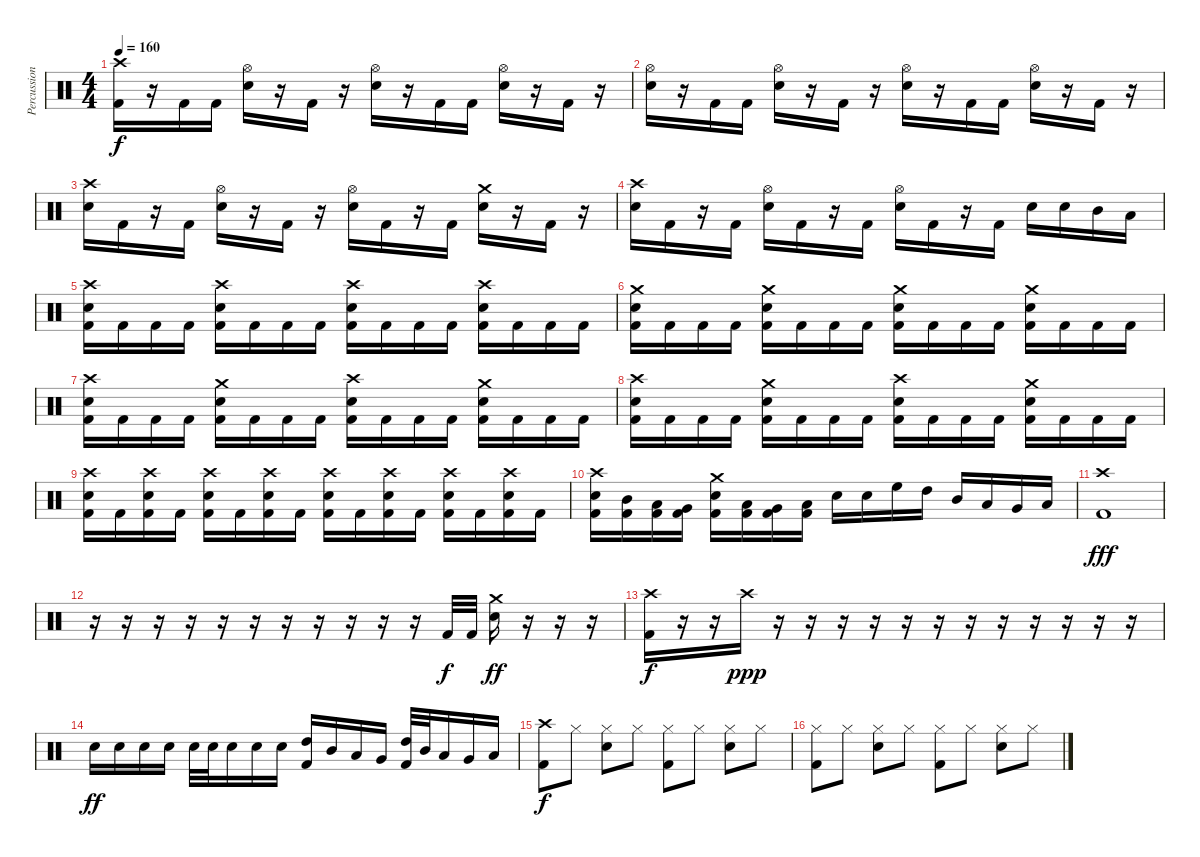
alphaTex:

\track ("Percussion" "Percussion") {instrument percussion}
\staff {score}
\articulation defaults
\ts (4 4)
\tempo 160
\clef neutral
\ks c
("Crash high (hit)" "Kick (hit) 2").16{dy f} r.16 "Kick (hit) 2".16 "Kick (hit) 2".16 ("Hi-Hat (open)" "Snare (hit) 2").16 r.16 "Kick (hit) 2".16 r.16 ("Hi-Hat (open)" "Snare (hit) 2").16 r.16 "Kick (hit) 2".16 "Kick (hit) 2".16 ("Hi-Hat (open)" "Snare (hit) 2").16 r.16 "Kick (hit) 2".16 r.16 |
("Hi-Hat (open)" "Snare (hit) 2").16 r.16 "Kick (hit) 2".16 "Kick (hit) 2".16 ("Hi-Hat (open)" "Snare (hit) 2").16 r.16 "Kick (hit) 2".16 r.16 ("Hi-Hat (open)" "Snare (hit) 2").16 r.16 "Kick (hit) 2".16 "Kick (hit) 2".16 ("Hi-Hat (open)" "Snare (hit) 2").16 r.16 "Kick (hit) 2".16 r.16 |
("Crash high (hit)" "Snare (hit) 2").16 "Kick (hit) 2".16 r.16 "Kick (hit) 2".16 ("Hi-Hat (open)" "Snare (hit) 2").16 r.16 "Kick (hit) 2".16 r.16 ("Hi-Hat (open)" "Snare (hit) 2").16 "Kick (hit) 2".16 r.16 "Kick (hit) 2".16 ("Crash medium (hit)" "Snare (hit) 2").16 r.16 "Kick (hit) 2".16 r.16 |
("Crash high (hit)" "Snare (hit) 2").16 "Kick (hit) 2".16 r.16 "Kick (hit) 2".16 ("Hi-Hat (open)" "Snare (hit) 2").16 "Kick (hit) 2".16 r.16 "Kick (hit) 2".16 ("Hi-Hat (open)" "Snare (hit) 2").16 "Kick (hit) 2".16 r.16 "Kick (hit) 2".16 "Snare (hit) 2".16 "Snare (hit) 2".16 "Mid Tom (hit)".16 "Low Tom (hit)".16 |
("Crash high (hit)" "Snare (hit) 2" "Kick (hit) 2").16 "Kick (hit) 2".16 "Kick (hit) 2".16 "Kick (hit) 2".16 ("Crash high (hit)" "Snare (hit) 2" "Kick (hit) 2").16 "Kick (hit) 2".16 "Kick (hit) 2".16 "Kick (hit) 2".16 ("Crash high (hit)" "Snare (hit) 2" "Kick (hit) 2").16 "Kick (hit) 2".16 "Kick (hit) 2".16 "Kick (hit) 2".16 ("Crash high (hit)" "Snare (hit) 2" "Kick (hit) 2").16 "Kick (hit) 2".16 "Kick (hit) 2".16 "Kick (hit) 2".16 |
("Crash medium (hit)" "Snare (hit) 2" "Kick (hit) 2").16 "Kick (hit) 2".16 "Kick (hit) 2".16 "Kick (hit) 2".16 ("Crash medium (hit)" "Snare (hit) 2" "Kick (hit) 2").16 "Kick (hit) 2".16 "Kick (hit) 2".16 "Kick (hit) 2".16 ("Crash medium (hit)" "Snare (hit) 2" "Kick (hit) 2").16 "Kick (hit) 2".16 "Kick (hit) 2".16 "Kick (hit) 2".16 ("Crash medium (hit)" "Snare (hit) 2" "Kick (hit) 2").16 "Kick (hit) 2".16 "Kick (hit) 2".16 "Kick (hit) 2".16 |
("Crash high (hit)" "Snare (hit) 2" "Kick (hit) 2").16 "Kick (hit) 2".16 "Kick (hit) 2".16 "Kick (hit) 2".16 ("Crash medium (hit)" "Snare (hit) 2" "Kick (hit) 2").16 "Kick (hit) 2".16 "Kick (hit) 2".16 "Kick (hit) 2".16 ("Crash high (hit)" "Snare (hit) 2" "Kick (hit) 2").16 "Kick (hit) 2".16 "Kick (hit) 2".16 "Kick (hit) 2".16 ("Crash medium (hit)" "Snare (hit) 2" "Kick (hit) 2").16 "Kick (hit) 2".16 "Kick (hit) 2".16 "Kick (hit) 2".16 |
("Crash high (hit)" "Snare (hit) 2" "Kick (hit) 2").16 "Kick (hit) 2".16 "Kick (hit) 2".16 "Kick (hit) 2".16 ("Crash medium (hit)" "Snare (hit) 2" "Kick (hit) 2").16 "Kick (hit) 2".16 "Kick (hit) 2".16 "Kick (hit) 2".16 ("Crash high (hit)" "Snare (hit) 2" "Kick (hit) 2").16 "Kick (hit) 2".16 "Kick (hit) 2".16 "Kick (hit) 2".16 ("Crash medium (hit)" "Snare (hit) 2" "Kick (hit) 2").16 "Kick (hit) 2".16 "Kick (hit) 2".16 "Kick (hit) 2".16 |
("Crash high (hit)" "Snare (hit) 2" "Kick (hit) 2").16 "Kick (hit) 2".16 ("Crash high (hit)" "Snare (hit) 2" "Kick (hit) 2").16 "Kick (hit) 2".16 ("Crash high (hit)" "Snare (hit) 2" "Kick (hit) 2").16 "Kick (hit) 2".16 ("Crash high (hit)" "Snare (hit) 2" "Kick (hit) 2").16 "Kick (hit) 2".16 ("Crash high (hit)" "Snare (hit) 2" "Kick (hit) 2").16 "Kick (hit) 2".16 ("Crash high (hit)" "Snare (hit) 2" "Kick (hit) 2").16 "Kick (hit) 2".16 ("Crash high (hit)" "Snare (hit) 2" "Kick (hit) 2").16 "Kick (hit) 2".16 ("Crash high (hit)" "Snare (hit) 2" "Kick (hit) 2").16 "Kick (hit) 2".16 |
("Crash high (hit)" "Snare (hit) 2" "Kick (hit) 2").16 ("Mid Tom (hit)" "Kick (hit) 2").16 ("Low Tom (hit)" "Kick (hit) 2").16 ("Very Low Tom (hit)" "Kick (hit) 2").16 ("Crash medium (hit)" "Snare (hit) 2" "Kick (hit) 2").16 ("Low Tom (hit)" "Kick (hit) 2").16 ("Very Low Tom (hit)" "Kick (hit) 2").16 ("Low Floor Tom (hit)" "Kick (hit) 2").16 "Snare (hit) 2".16 "Snare (hit) 2".16 "High Floor Tom (hit)".16 "High Tom (hit)".16 "Mid Tom (hit)".16 "Low Tom (hit)".16 "Very Low Tom (hit)".16 "Low Floor Tom (hit)".16 |
("Crash high (hit)" "Kick (hit) 2").1{dy fff} |
r.16 r.16 r.16 r.16 r.16 r.16 r.16 r.16 r.16 r.16 r.16 "Kick (hit) 2".32{dy f} "Kick (hit) 2".32 ("Crash medium (hit)" "Snare (hit) 2").16{dy ff} r.16 r.16 r.16 |
("Crash high (hit)" "Kick (hit) 2").16{dy f} r.16 r.16 "Crash high (hit)".16{dy ppp} r.16 r.16 r.16 r.16 r.16 r.16 r.16 r.16 r.16 r.16 r.16 r.16 |
"Snare (hit) 2".16{dy ff} "Snare (hit) 2".16 "Snare (hit) 2".16 "Snare (hit) 2".16 "Snare (hit) 2".32 "Snare (hit) 2".32 "Snare (hit) 2".16 "Snare (hit) 2".16 "Snare (hit) 2".16 ("High Tom (hit)" "Kick (hit) 2").16 "Mid Tom (hit)".16 "Low Tom (hit)".16 "Very Low Tom (hit)".16 ("High Tom (hit)" "Kick (hit) 2").32 "Mid Tom (hit)".32 "Low Tom (hit)".16 "Very Low Tom (hit)".16 "Low Floor Tom (hit)".16 |
("Crash high (hit)" "Kick (hit) 2").8{dy f} "Hi-Hat (closed)".8 ("Hi-Hat (closed)" "Snare (hit) 2").8 "Hi-Hat (closed)".8 ("Hi-Hat (closed)" "Kick (hit) 2").8 "Hi-Hat (closed)".8 ("Hi-Hat (closed)" "Snare (hit) 2").8 "Hi-Hat (closed)".8 |
("Hi-Hat (closed)" "Kick (hit) 2").8 "Hi-Hat (closed)".8 ("Hi-Hat (closed)" "Snare (hit) 2").8 "Hi-Hat (closed)".8 ("Hi-Hat (closed)" "Kick (hit) 2").8 "Hi-Hat (closed)".8 ("Hi-Hat (closed)" "Snare (hit) 2").8 "Hi-Hat (closed)".8
